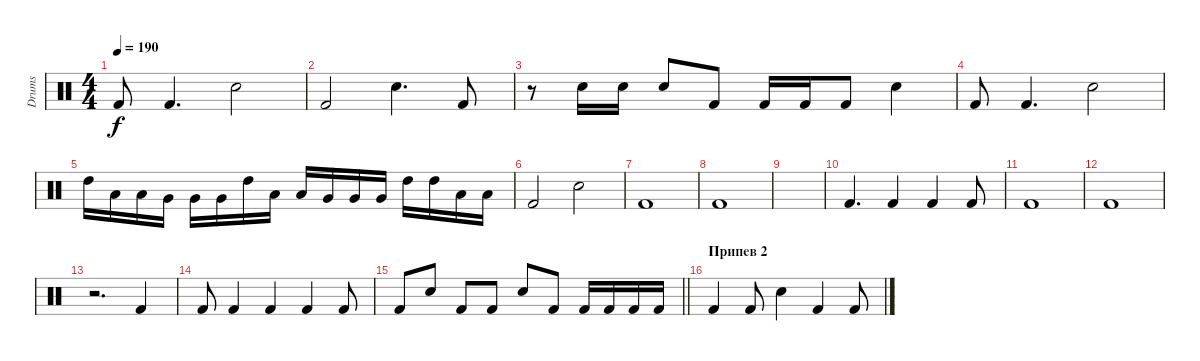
\track ("Drums" "Drums") {instrument percussion}
\staff {score}
\articulation defaults
\ts (4 4)
\tempo 190
\clef neutral
\ks c "Kick (hit) 2".8{dy f} "Kick (hit) 2".4{d} "Snare (hit) 2".2
|
"Kick (hit) 2".2 "Snare (hit) 2".4{d} "Kick (hit) 2".8 |
r.8 "Snare (hit) 2".16 "Snare (hit) 2".16 "Snare (hit) 2".8 "Kick (hit) 2".8 "Kick (hit) 2".16 "Kick (hit) 2".16 "Kick (hit) 2".8 "Snare (hit) 2".4 |
"Kick (hit) 2".8 "Kick (hit) 2".4{d} "Snare (hit) 2".2 |
"High Tom (hit)".16 "Low Tom (hit)".16 "Low Tom (hit)".16 "Very Low Tom (hit)".16 "Very Low Tom (hit)".16 "Very Low Tom (hit)".16 "High Tom (hit)".16 "Low Tom (hit)".16 "Low Tom (hit)".16 "Very Low Tom (hit)".16 "Very Low Tom (hit)".16 "Very Low Tom (hit)".16 "High Tom (hit)".16 "High Tom (hit)".16 "Low Tom (hit)".16 "Low Tom (hit)".16 |
"Kick (hit) 2".2 "Snare (hit) 2".2 |
"Kick (hit) 2".1 |
"Kick (hit) 2".1 |
|
"Kick (hit) 2".4{d} "Kick (hit) 2".4 "Kick (hit) 2".4 "Kick (hit) 2".8 |
"Kick (hit) 2".1 |
"Kick (hit) 2".1 |
r.2{d} "Kick (hit) 2".4 |
"Kick (hit) 2".8 "Kick (hit) 2".4 "Kick (hit) 2".4 "Kick (hit) 2".4 "Kick (hit) 2".8 |
\barLineRight lightlight "Kick (hit) 2".8 "Snare (hit) 2".8 "Kick (hit) 2".8 "Kick (hit) 2".8 "Snare (hit) 2".8 "Kick (hit) 2".8 "Kick (hit) 2".16 "Kick (hit) 2".16 "Kick (hit) 2".16 "Kick (hit) 2".16
|
\section ("" "Припев 2")
"Kick (hit) 2".4 "Kick (hit) 2".8 "Snare (hit) 2".4 "Kick (hit) 2".4 "Kick (hit) 2".8
